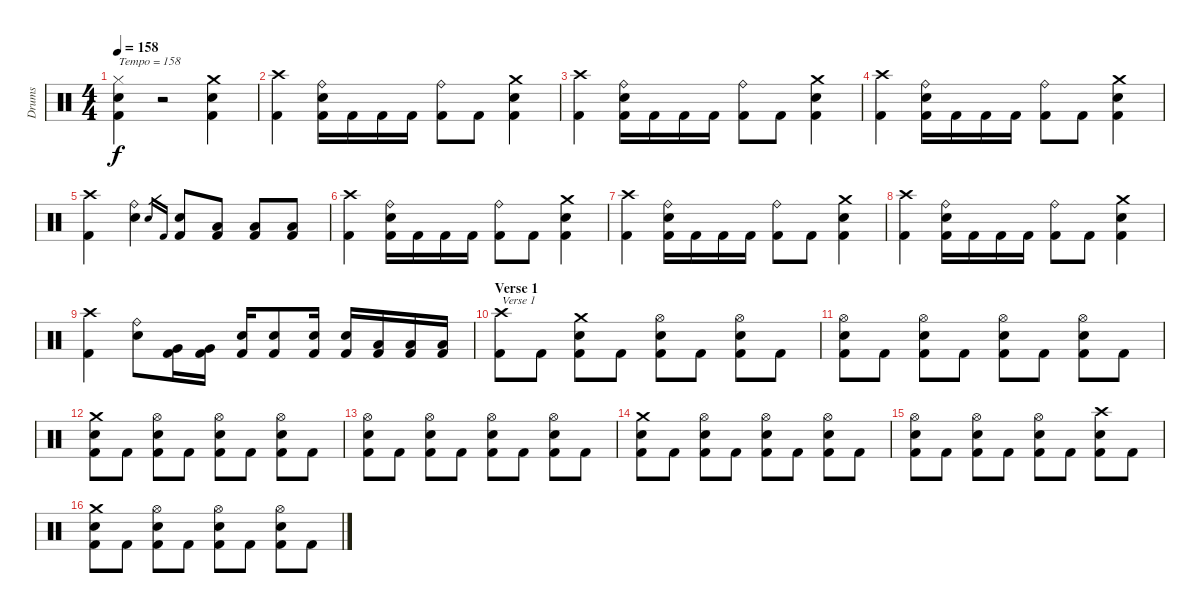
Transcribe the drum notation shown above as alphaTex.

\track ("Drums" "Drums") {instrument percussion}
\staff {score}
\articulation defaults
\ts (4 4)
\tempo 158
\clef neutral
\ks c
("Hi-Hat (closed)" "Electric Snare (hit)" "Kick (hit) 2").4{txt "Tempo = 158" dy f} r.2 ("Crash medium (hit)" "Electric Snare (hit)" "Kick (hit) 2").4 |
("Crash high (hit)" "Kick (hit) 2").4 ("Ride (bell)" "Electric Snare (hit)" "Kick (hit) 2").16 "Kick (hit) 2".16 "Kick (hit) 2".16 "Kick (hit) 2".16 ("Ride (bell)" "Kick (hit) 2").8 "Kick (hit) 2".8 ("Crash medium (hit)" "Electric Snare (hit)" "Kick (hit) 2").4 |
("Crash high (hit)" "Kick (hit) 2").4 ("Ride (bell)" "Electric Snare (hit)" "Kick (hit) 2").16 "Kick (hit) 2".16 "Kick (hit) 2".16 "Kick (hit) 2".16 ("Ride (bell)" "Kick (hit) 2").8 "Kick (hit) 2".8 ("Crash medium (hit)" "Electric Snare (hit)" "Kick (hit) 2").4 |
("Crash high (hit)" "Kick (hit) 2").4 ("Ride (bell)" "Electric Snare (hit)" "Kick (hit) 2").16 "Kick (hit) 2".16 "Kick (hit) 2".16 "Kick (hit) 2".16 ("Ride (bell)" "Kick (hit) 2").8 "Kick (hit) 2".8 ("Crash medium (hit)" "Electric Snare (hit)" "Kick (hit) 2").4 |
("Crash high (hit)" "Kick (hit) 2").4 ("Ride (bell)" "Electric Snare (hit)").4 "Electric Snare (hit)".16{gr} "Kick (hit) 2".16{gr} ("Electric Snare (hit)" "Kick (hit) 2").8 ("Low Floor Tom (hit)" "Kick (hit) 2").8 ("Low Floor Tom (hit)" "Kick (hit) 2").8 ("Low Floor Tom (hit)" "Kick (hit) 2").8 |
("Crash high (hit)" "Kick (hit) 2").4 ("Ride (bell)" "Electric Snare (hit)" "Kick (hit) 2").16 "Kick (hit) 2".16 "Kick (hit) 2".16 "Kick (hit) 2".16 ("Ride (bell)" "Kick (hit) 2").8 "Kick (hit) 2".8 ("Crash medium (hit)" "Electric Snare (hit)" "Kick (hit) 2").4 |
("Crash high (hit)" "Kick (hit) 2").4 ("Ride (bell)" "Electric Snare (hit)" "Kick (hit) 2").16 "Kick (hit) 2".16 "Kick (hit) 2".16 "Kick (hit) 2".16 ("Ride (bell)" "Kick (hit) 2").8 "Kick (hit) 2".8 ("Crash medium (hit)" "Electric Snare (hit)" "Kick (hit) 2").4 |
("Crash high (hit)" "Kick (hit) 2").4 ("Ride (bell)" "Electric Snare (hit)" "Kick (hit) 2").16 "Kick (hit) 2".16 "Kick (hit) 2".16 "Kick (hit) 2".16 ("Ride (bell)" "Kick (hit) 2").8 "Kick (hit) 2".8 ("Crash medium (hit)" "Electric Snare (hit)" "Kick (hit) 2").4 |
("Crash high (hit)" "Kick (hit) 2").4 ("Ride (bell)" "Electric Snare (hit)").8 ("Very Low Tom (hit)" "Kick (hit) 2").16 ("Very Low Tom (hit)" "Kick (hit) 2").16 ("Electric Snare (hit)" "Kick (hit) 2").16 ("Electric Snare (hit)" "Kick (hit) 2").8 ("Electric Snare (hit)" "Kick (hit) 2").16 ("Electric Snare (hit)" "Kick (hit) 2").16 ("Low Floor Tom (hit)" "Kick (hit) 2").16 ("Low Floor Tom (hit)" "Kick (hit) 2").16 ("Low Floor Tom (hit)" "Kick (hit) 2").16 |
\section ("" "Verse 1")
("Crash high (hit)" "Kick (hit) 2").8{txt "Verse 1"} "Kick (hit) 2".8 ("Crash medium (hit)" "Electric Snare (hit)" "Kick (hit) 2").8 "Kick (hit) 2".8 ("Hi-Hat (open)" "Electric Snare (hit)" "Kick (hit) 2").8 "Kick (hit) 2".8 ("Hi-Hat (open)" "Electric Snare (hit)" "Kick (hit) 2").8 "Kick (hit) 2".8 |
("Hi-Hat (open)" "Electric Snare (hit)" "Kick (hit) 2").8 "Kick (hit) 2".8 ("Hi-Hat (open)" "Electric Snare (hit)" "Kick (hit) 2").8 "Kick (hit) 2".8 ("Hi-Hat (open)" "Electric Snare (hit)" "Kick (hit) 2").8 "Kick (hit) 2".8 ("Hi-Hat (open)" "Electric Snare (hit)" "Kick (hit) 2").8 "Kick (hit) 2".8 |
("Crash medium (hit)" "Electric Snare (hit)" "Kick (hit) 2").8 "Kick (hit) 2".8 ("Hi-Hat (open)" "Electric Snare (hit)" "Kick (hit) 2").8 "Kick (hit) 2".8 ("Hi-Hat (open)" "Electric Snare (hit)" "Kick (hit) 2").8 "Kick (hit) 2".8 ("Hi-Hat (open)" "Electric Snare (hit)" "Kick (hit) 2").8 "Kick (hit) 2".8 |
("Hi-Hat (open)" "Electric Snare (hit)" "Kick (hit) 2").8 "Kick (hit) 2".8 ("Hi-Hat (open)" "Electric Snare (hit)" "Kick (hit) 2").8 "Kick (hit) 2".8 ("Hi-Hat (open)" "Electric Snare (hit)" "Kick (hit) 2").8 "Kick (hit) 2".8 ("Hi-Hat (open)" "Electric Snare (hit)" "Kick (hit) 2").8 "Kick (hit) 2".8 |
("Crash medium (hit)" "Electric Snare (hit)" "Kick (hit) 2").8 "Kick (hit) 2".8 ("Hi-Hat (open)" "Electric Snare (hit)" "Kick (hit) 2").8 "Kick (hit) 2".8 ("Hi-Hat (open)" "Electric Snare (hit)" "Kick (hit) 2").8 "Kick (hit) 2".8 ("Hi-Hat (open)" "Electric Snare (hit)" "Kick (hit) 2").8 "Kick (hit) 2".8 |
("Hi-Hat (open)" "Electric Snare (hit)" "Kick (hit) 2").8 "Kick (hit) 2".8 ("Hi-Hat (open)" "Electric Snare (hit)" "Kick (hit) 2").8 "Kick (hit) 2".8 ("Hi-Hat (open)" "Electric Snare (hit)" "Kick (hit) 2").8 "Kick (hit) 2".8 ("Crash high (hit)" "Electric Snare (hit)" "Kick (hit) 2").8 "Kick (hit) 2".8 |
("Crash medium (hit)" "Electric Snare (hit)" "Kick (hit) 2").8 "Kick (hit) 2".8 ("Hi-Hat (open)" "Electric Snare (hit)" "Kick (hit) 2").8 "Kick (hit) 2".8 ("Hi-Hat (open)" "Electric Snare (hit)" "Kick (hit) 2").8 "Kick (hit) 2".8 ("Hi-Hat (open)" "Electric Snare (hit)" "Kick (hit) 2").8 "Kick (hit) 2".8
